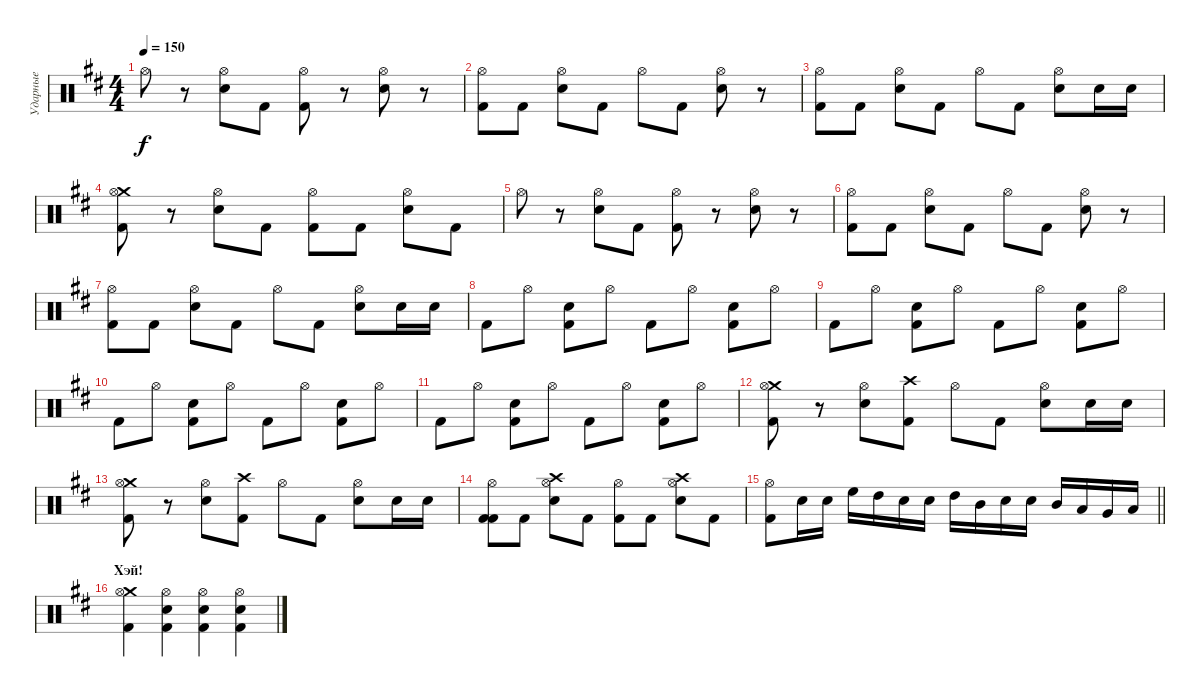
\track ("Ударные" "Ударные") {instrument percussion}
\staff {score}
\articulation defaults
\ts (4 4)
\tempo 150
\clef neutral
\ks bminor "Hi-Hat (open)".8{dy f}
r.8 ("Electric Snare (hit)" "Hi-Hat (open)").8 "Kick (hit) 2".8 ("Kick (hit) 2" "Hi-Hat (open)").8 r.8 ("Electric Snare (hit)" "Hi-Hat (open)").8 r.8 |
("Kick (hit) 2" "Hi-Hat (open)").8 "Kick (hit) 2".8 ("Electric Snare (hit)" "Hi-Hat (open)").8 "Kick (hit) 2".8 "Hi-Hat (open)".8 "Kick (hit) 2".8 ("Electric Snare (hit)" "Hi-Hat (open)").8 r.8 |
("Kick (hit) 2" "Hi-Hat (open)").8 "Kick (hit) 2".8 ("Electric Snare (hit)" "Hi-Hat (open)").8 "Kick (hit) 2".8 "Hi-Hat (open)".8 "Kick (hit) 2".8 ("Electric Snare (hit)" "Hi-Hat (open)").8 "Electric Snare (hit)".16 "Electric Snare (hit)".16 |
("Crash medium (hit)" "Kick (hit) 2" "Hi-Hat (open)").8 r.8 ("Electric Snare (hit)" "Hi-Hat (open)").8 "Kick (hit) 2".8 ("Kick (hit) 2" "Hi-Hat (open)").8 "Kick (hit) 2".8 ("Electric Snare (hit)" "Hi-Hat (open)").8 "Kick (hit) 2".8 |
"Hi-Hat (open)".8 r.8 ("Electric Snare (hit)" "Hi-Hat (open)").8 "Kick (hit) 2".8 ("Kick (hit) 2" "Hi-Hat (open)").8 r.8 ("Electric Snare (hit)" "Hi-Hat (open)").8 r.8 |
("Kick (hit) 2" "Hi-Hat (open)").8 "Kick (hit) 2".8 ("Electric Snare (hit)" "Hi-Hat (open)").8 "Kick (hit) 2".8 "Hi-Hat (open)".8 "Kick (hit) 2".8 ("Electric Snare (hit)" "Hi-Hat (open)").8 r.8 |
("Kick (hit) 2" "Hi-Hat (open)").8 "Kick (hit) 2".8 ("Electric Snare (hit)" "Hi-Hat (open)").8 "Kick (hit) 2".8 "Hi-Hat (open)".8 "Kick (hit) 2".8 ("Electric Snare (hit)" "Hi-Hat (open)").8 "Electric Snare (hit)".16 "Electric Snare (hit)".16 |
"Kick (hit) 2".8 "Hi-Hat (open)".8 ("Electric Snare (hit)" "Kick (hit) 2").8 "Hi-Hat (open)".8 "Kick (hit) 2".8 "Hi-Hat (open)".8 ("Electric Snare (hit)" "Kick (hit) 2").8 "Hi-Hat (open)".8 |
"Kick (hit) 2".8 "Hi-Hat (open)".8 ("Electric Snare (hit)" "Kick (hit) 2").8 "Hi-Hat (open)".8 "Kick (hit) 2".8 "Hi-Hat (open)".8 ("Electric Snare (hit)" "Kick (hit) 2").8 "Hi-Hat (open)".8 |
"Kick (hit) 2".8 "Hi-Hat (open)".8 ("Electric Snare (hit)" "Kick (hit) 2").8 "Hi-Hat (open)".8 "Kick (hit) 2".8 "Hi-Hat (open)".8 ("Electric Snare (hit)" "Kick (hit) 2").8 "Hi-Hat (open)".8 |
"Kick (hit) 2".8 "Hi-Hat (open)".8 ("Electric Snare (hit)" "Kick (hit) 2").8 "Hi-Hat (open)".8 "Kick (hit) 2".8 "Hi-Hat (open)".8 ("Electric Snare (hit)" "Kick (hit) 2").8 "Hi-Hat (open)".8 |
("Crash medium (hit)" "Kick (hit) 2" "Hi-Hat (open)").8 r.8 ("Electric Snare (hit)" "Hi-Hat (open)").8 ("Crash high (hit)" "Kick (hit) 2").8 "Hi-Hat (open)".8 "Kick (hit) 2".8 ("Electric Snare (hit)" "Hi-Hat (open)").8 "Electric Snare (hit)".16 "Electric Snare (hit)".16 |
("Crash medium (hit)" "Kick (hit) 2" "Hi-Hat (open)").8 r.8 ("Electric Snare (hit)" "Hi-Hat (open)").8 ("Crash high (hit)" "Kick (hit) 2").8 "Hi-Hat (open)".8 "Kick (hit) 2".8 ("Electric Snare (hit)" "Hi-Hat (open)").8 "Electric Snare (hit)".16 "Electric Snare (hit)".16 |
("Kick (hit) 2" "Hi-Hat (open)" "Kick (hit) 2").8 "Kick (hit) 2".8 ("Crash high (hit)" "Hi-Hat (open)" "Electric Snare (hit)").8 "Kick (hit) 2".8 ("Hi-Hat (open)" "Kick (hit) 2").8 "Kick (hit) 2".8 ("Crash high (hit)" "Hi-Hat (open)" "Electric Snare (hit)").8 "Kick (hit) 2".8 |
\barLineRight lightlight
("Hi-Hat (open)" "Kick (hit) 2").8 "Electric Snare (hit)".16 "Electric Snare (hit)".16 "High Floor Tom (hit)".16 "High Tom (hit)".16 "Electric Snare (hit)".16 "Electric Snare (hit)".16 "High Tom (hit)".16 "Mid Tom (hit)".16 "Electric Snare (hit)".16 "Electric Snare (hit)".16 "Mid Tom (hit)".16 "Low Tom (hit)".16 "Very Low Tom (hit)".16 "Low Floor Tom (hit)".16 |
\section ("" "Хэй!")
("Crash medium (hit)" "Kick (hit) 2" "Hi-Hat (open)").4 ("Electric Snare (hit)" "Hi-Hat (open)" "Kick (hit) 2").4 ("Electric Snare (hit)" "Hi-Hat (open)" "Kick (hit) 2").4 ("Electric Snare (hit)" "Hi-Hat (open)" "Kick (hit) 2").4
